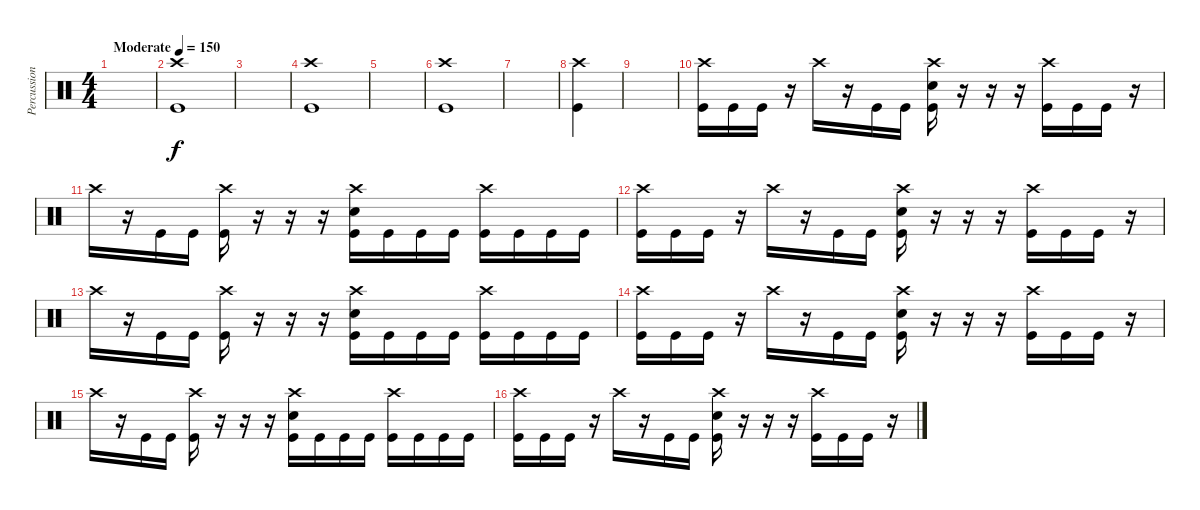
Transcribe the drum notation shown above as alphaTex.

\track ("Percussion" "Percussion") {instrument percussion}
\staff {score}
\articulation defaults
\ts (4 4)
\tempo (150 "Moderate")
\clef neutral
\ks c
|
("Crash high (hit)" "Kick (hit)").1 |
|
("Crash high (hit)" "Kick (hit)").1 |
|
("Crash high (hit)" "Kick (hit)").1 |
|
("Crash high (hit)" "Kick (hit)").4 |
|
("Crash high (hit)" "Kick (hit)").16 "Kick (hit)".16 "Kick (hit)".16 r.16 "Crash high (hit)".16 r.16 "Kick (hit)".16 "Kick (hit)".16 ("Crash high (hit)" "Electric Snare (hit)" "Kick (hit)").16 r.16 r.16 r.16 ("Crash high (hit)" "Kick (hit)").16 "Kick (hit)".16 "Kick (hit)".16 r.16 |
"Crash high (hit)".16 r.16 "Kick (hit)".16 "Kick (hit)".16 ("Crash high (hit)" "Kick (hit)").16 r.16 r.16 r.16 ("Crash high (hit)" "Electric Snare (hit)" "Kick (hit)").16 "Kick (hit)".16 "Kick (hit)".16 "Kick (hit)".16 ("Crash high (hit)" "Kick (hit)").16 "Kick (hit)".16 "Kick (hit)".16 "Kick (hit)".16 |
("Crash high (hit)" "Kick (hit)").16 "Kick (hit)".16 "Kick (hit)".16 r.16 "Crash high (hit)".16 r.16 "Kick (hit)".16 "Kick (hit)".16 ("Crash high (hit)" "Electric Snare (hit)" "Kick (hit)").16 r.16 r.16 r.16 ("Crash high (hit)" "Kick (hit)").16 "Kick (hit)".16 "Kick (hit)".16 r.16 |
"Crash high (hit)".16 r.16 "Kick (hit)".16 "Kick (hit)".16 ("Crash high (hit)" "Kick (hit)").16 r.16 r.16 r.16 ("Crash high (hit)" "Electric Snare (hit)" "Kick (hit)").16 "Kick (hit)".16 "Kick (hit)".16 "Kick (hit)".16 ("Crash high (hit)" "Kick (hit)").16 "Kick (hit)".16 "Kick (hit)".16 "Kick (hit)".16 |
("Crash high (hit)" "Kick (hit)").16 "Kick (hit)".16 "Kick (hit)".16 r.16 "Crash high (hit)".16 r.16 "Kick (hit)".16 "Kick (hit)".16 ("Crash high (hit)" "Electric Snare (hit)" "Kick (hit)").16 r.16 r.16 r.16 ("Crash high (hit)" "Kick (hit)").16 "Kick (hit)".16 "Kick (hit)".16 r.16 |
"Crash high (hit)".16 r.16 "Kick (hit)".16 "Kick (hit)".16 ("Crash high (hit)" "Kick (hit)").16 r.16 r.16 r.16 ("Crash high (hit)" "Electric Snare (hit)" "Kick (hit)").16 "Kick (hit)".16 "Kick (hit)".16 "Kick (hit)".16 ("Crash high (hit)" "Kick (hit)").16 "Kick (hit)".16 "Kick (hit)".16 "Kick (hit)".16 |
("Crash high (hit)" "Kick (hit)").16 "Kick (hit)".16 "Kick (hit)".16 r.16 "Crash high (hit)".16 r.16 "Kick (hit)".16 "Kick (hit)".16 ("Crash high (hit)" "Electric Snare (hit)" "Kick (hit)").16 r.16 r.16 r.16 ("Crash high (hit)" "Kick (hit)").16 "Kick (hit)".16 "Kick (hit)".16 r.16
